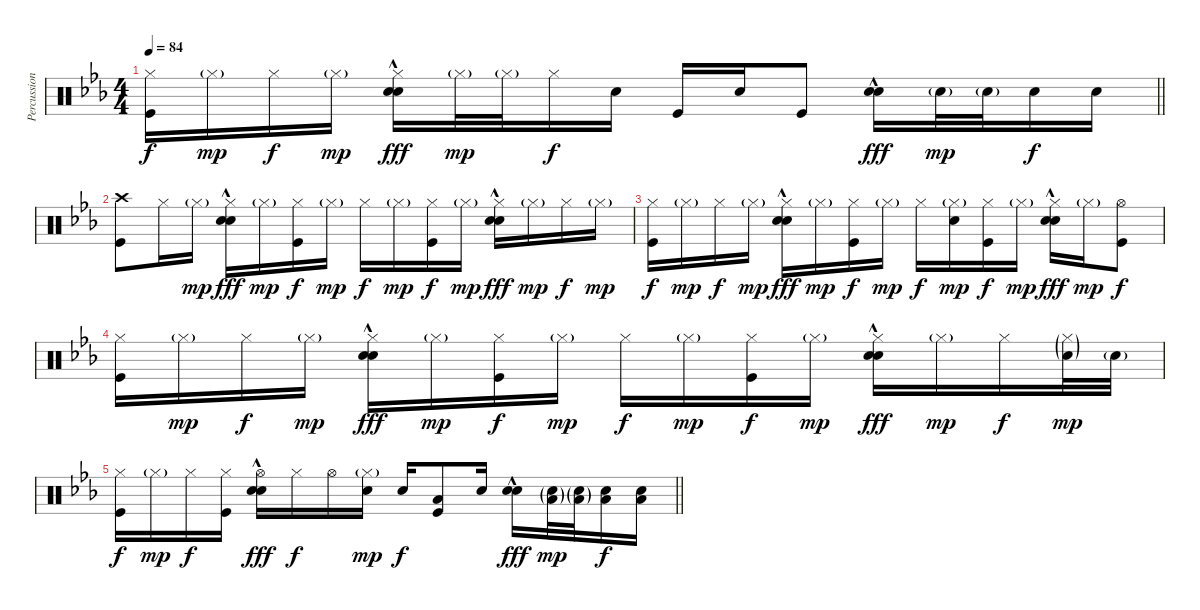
\track ("Percussion" "Percussion") {instrument percussion}
\staff {score}
\articulation defaults
\ts (4 4)
\tempo 84
\clef neutral
\barLineRight lightlight
\ks eb
("Hi-Hat (closed)" "Kick (hit)").16{dy f} "Hi-Hat (closed)"{g}.16{dy mp} "Hi-Hat (closed)".16{dy f} "Hi-Hat (closed)"{g}.16{dy mp} ("Hi-Hat (closed)" "Hand Clap (hit)"{hac} "Snare (hit) 2").16{dy fff} "Hi-Hat (closed)"{g}.32{dy mp} "Hi-Hat (closed)"{g}.32 "Hi-Hat (closed)".16{dy f} "Snare (hit) 2".16 "Kick (hit)".16 "Snare (hit) 2".16 "Kick (hit)".8 ("Hand Clap (hit)"{hac} "Snare (hit) 2").16{dy fff} "Snare (hit) 2"{g}.32{dy mp} "Snare (hit) 2"{g}.32 "Snare (hit) 2".16{dy f} "Snare (hit) 2".16 |
("Crash high (hit)" "Kick (hit)").8 "Hi-Hat (closed)".16 "Hi-Hat (closed)"{g}.16{dy mp} ("Hi-Hat (closed)" "Hand Clap (hit)"{hac} "Snare (hit) 2").16{dy fff} "Hi-Hat (closed)"{g}.16{dy mp} ("Hi-Hat (closed)" "Kick (hit)").16{dy f} "Hi-Hat (closed)"{g}.16{dy mp} "Hi-Hat (closed)".16{dy f} "Hi-Hat (closed)"{g}.16{dy mp} ("Hi-Hat (closed)" "Kick (hit)").16{dy f} "Hi-Hat (closed)"{g}.16{dy mp} ("Hi-Hat (closed)" "Hand Clap (hit)"{hac} "Snare (hit) 2").16{dy fff} "Hi-Hat (closed)"{g}.16{dy mp} "Hi-Hat (closed)".16{dy f} "Hi-Hat (closed)"{g}.16{dy mp} |
("Hi-Hat (closed)" "Kick (hit)").16{dy f} "Hi-Hat (closed)"{g}.16{dy mp} "Hi-Hat (closed)".16{dy f} "Hi-Hat (closed)"{g}.16{dy mp} ("Hi-Hat (closed)" "Hand Clap (hit)"{hac} "Snare (hit) 2").16{dy fff} "Hi-Hat (closed)"{g}.16{dy mp} ("Hi-Hat (closed)" "Kick (hit)").16{dy f} "Hi-Hat (closed)"{g}.16{dy mp} "Hi-Hat (closed)".16{dy f} ("Hi-Hat (closed)"{g} "Snare (hit) 2").16{dy mp} ("Hi-Hat (closed)" "Kick (hit)").16{dy f} "Hi-Hat (closed)"{g}.16{dy mp} ("Hi-Hat (closed)" "Hand Clap (hit)"{hac} "Snare (hit) 2").16{dy fff} "Hi-Hat (closed)"{g}.16{dy mp} ("Hi-Hat (open)" "Kick (hit)").8{dy f} |
("Hi-Hat (closed)" "Kick (hit)").16 "Hi-Hat (closed)"{g}.16{dy mp} "Hi-Hat (closed)".16{dy f} "Hi-Hat (closed)"{g}.16{dy mp} ("Hi-Hat (closed)" "Hand Clap (hit)"{hac} "Snare (hit) 2").16{dy fff} "Hi-Hat (closed)"{g}.16{dy mp} ("Hi-Hat (closed)" "Kick (hit)").16{dy f} "Hi-Hat (closed)"{g}.16{dy mp} "Hi-Hat (closed)".16{dy f} "Hi-Hat (closed)"{g}.16{dy mp} ("Hi-Hat (closed)" "Kick (hit)").16{dy f} "Hi-Hat (closed)"{g}.16{dy mp} ("Hi-Hat (closed)" "Hand Clap (hit)"{hac} "Snare (hit) 2").16{dy fff} "Hi-Hat (closed)"{g}.16{dy mp} "Hi-Hat (closed)".16{dy f} ("Hi-Hat (closed)"{g} "Snare (hit) 2"{g}).32{dy mp} "Snare (hit) 2"{g}.32 |
\barLineRight lightlight
("Hi-Hat (closed)" "Kick (hit)").16{dy f} "Hi-Hat (closed)"{g}.16{dy mp} "Hi-Hat (closed)".16{dy f} ("Hi-Hat (closed)" "Kick (hit)").16 ("Hi-Hat (open)" "Hand Clap (hit)"{hac} "Snare (hit) 2").16{dy fff} "Hi-Hat (closed)".16{dy f} "Hi-Hat (open)".16 ("Hi-Hat (closed)"{g} "Snare (hit) 2").16{dy mp} "Snare (hit) 2".16{dy f} ("Low Tom (hit)" "Kick (hit)").8 "Snare (hit) 2".16 ("Hand Clap (hit)"{hac} "Snare (hit) 2").16{dy fff} ("Low Tom (hit)"{g} "Snare (hit) 2"{g}).32{dy mp} ("Low Tom (hit)"{g} "Snare (hit) 2"{g}).32 ("Low Tom (hit)" "Snare (hit) 2").16{dy f} ("Low Tom (hit)" "Snare (hit) 2").16
